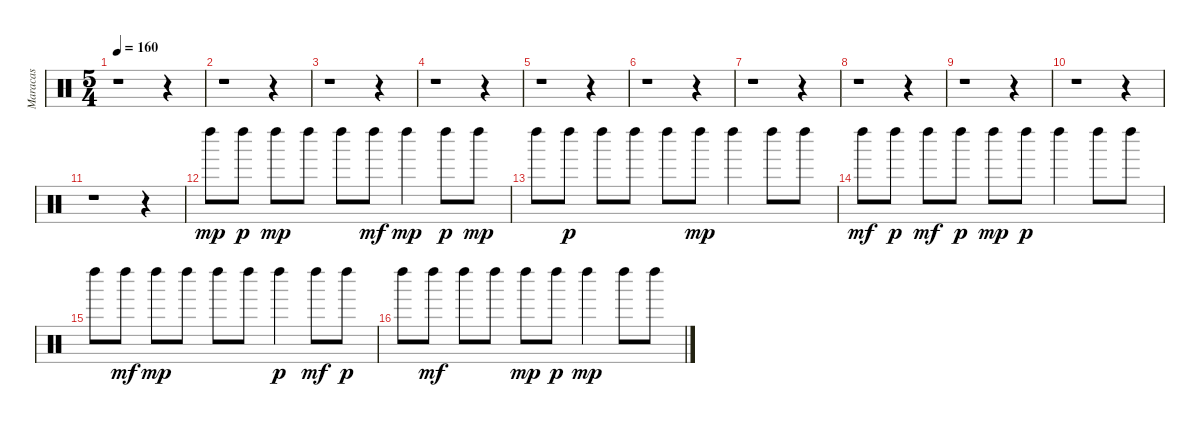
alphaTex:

\track ("Maracas" "Maracas") {instrument percussion}
\staff {score}
\articulation defaults
\ts (5 4)
\tempo 160
\clef neutral
\ks c
r.1{dy p} r.4 |
r.1 r.4 |
r.1 r.4 |
r.1 r.4 |
r.1 r.4 |
r.1 r.4 |
r.1 r.4 |
r.1 r.4 |
r.1 r.4 |
r.1 r.4 |
r.1 r.4 |
"Left Maraca (hit)".8{dy mp} "Left Maraca (hit)".8{dy p} "Left Maraca (hit)".8{dy mp} "Left Maraca (hit)".8 "Left Maraca (hit)".8 "Left Maraca (hit)".8{dy mf} "Left Maraca (hit)".4{dy mp} "Left Maraca (hit)".8{dy p} "Left Maraca (hit)".8{dy mp} |
"Left Maraca (hit)".8 "Left Maraca (hit)".8{dy p} "Left Maraca (hit)".8 "Left Maraca (hit)".8 "Left Maraca (hit)".8 "Left Maraca (hit)".8{dy mp} "Left Maraca (hit)".4 "Left Maraca (hit)".8 "Left Maraca (hit)".8 |
"Left Maraca (hit)".8{dy mf} "Left Maraca (hit)".8{dy p} "Left Maraca (hit)".8{dy mf} "Left Maraca (hit)".8{dy p} "Left Maraca (hit)".8{dy mp} "Left Maraca (hit)".8{dy p} "Left Maraca (hit)".4 "Left Maraca (hit)".8 "Left Maraca (hit)".8 |
"Left Maraca (hit)".8 "Left Maraca (hit)".8{dy mf} "Left Maraca (hit)".8{dy mp} "Left Maraca (hit)".8 "Left Maraca (hit)".8 "Left Maraca (hit)".8 "Left Maraca (hit)".4{dy p} "Left Maraca (hit)".8{dy mf} "Left Maraca (hit)".8{dy p} |
"Left Maraca (hit)".8 "Left Maraca (hit)".8{dy mf} "Left Maraca (hit)".8 "Left Maraca (hit)".8 "Left Maraca (hit)".8{dy mp} "Left Maraca (hit)".8{dy p} "Left Maraca (hit)".4{dy mp} "Left Maraca (hit)".8 "Left Maraca (hit)".8
